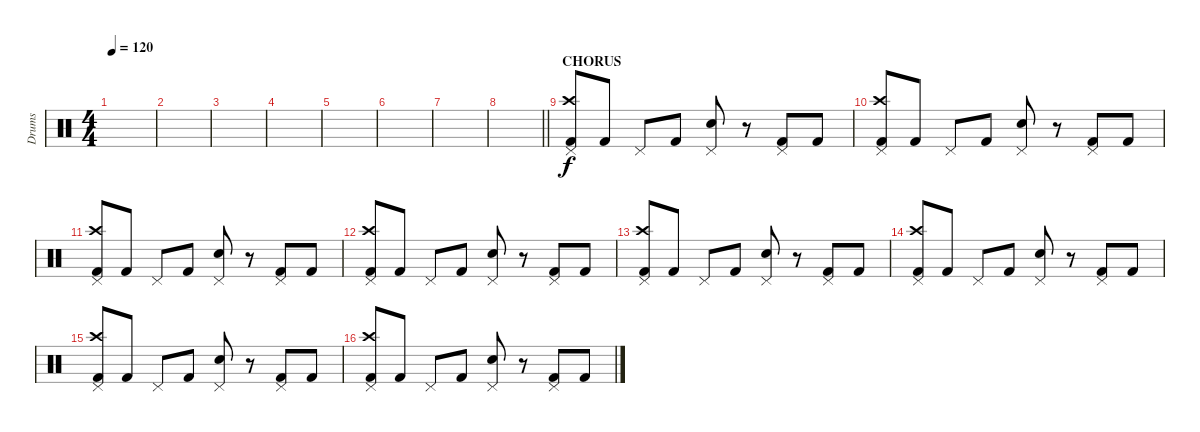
\track ("Drums" "Drums") {instrument percussion}
\staff {score}
\articulation defaults
\ts (4 4)
\tempo 120
\clef neutral
\ks c
|
|
|
|
|
|
|
\barLineRight lightlight
|
\section ("" "CHORUS")
("Pedal Hi-Hat (hit)" "Crash high (hit)" "Kick (hit) 2").8 "Kick (hit) 2".8 "Pedal Hi-Hat (hit)".8 "Kick (hit) 2".8 ("Pedal Hi-Hat (hit)" "Snare (hit) 2").8 r.8 ("Pedal Hi-Hat (hit)" "Kick (hit) 2").8 "Kick (hit) 2".8 |
("Pedal Hi-Hat (hit)" "Crash high (hit)" "Kick (hit) 2").8 "Kick (hit) 2".8 "Pedal Hi-Hat (hit)".8 "Kick (hit) 2".8 ("Pedal Hi-Hat (hit)" "Snare (hit) 2").8 r.8 ("Pedal Hi-Hat (hit)" "Kick (hit) 2").8 "Kick (hit) 2".8 |
("Pedal Hi-Hat (hit)" "Crash high (hit)" "Kick (hit) 2").8 "Kick (hit) 2".8 "Pedal Hi-Hat (hit)".8 "Kick (hit) 2".8 ("Pedal Hi-Hat (hit)" "Snare (hit) 2").8 r.8 ("Pedal Hi-Hat (hit)" "Kick (hit) 2").8 "Kick (hit) 2".8 |
("Pedal Hi-Hat (hit)" "Crash high (hit)" "Kick (hit) 2").8 "Kick (hit) 2".8 "Pedal Hi-Hat (hit)".8 "Kick (hit) 2".8 ("Pedal Hi-Hat (hit)" "Snare (hit) 2").8 r.8 ("Pedal Hi-Hat (hit)" "Kick (hit) 2").8 "Kick (hit) 2".8 |
("Pedal Hi-Hat (hit)" "Crash high (hit)" "Kick (hit) 2").8 "Kick (hit) 2".8 "Pedal Hi-Hat (hit)".8 "Kick (hit) 2".8 ("Pedal Hi-Hat (hit)" "Snare (hit) 2").8 r.8 ("Pedal Hi-Hat (hit)" "Kick (hit) 2").8 "Kick (hit) 2".8 |
("Pedal Hi-Hat (hit)" "Crash high (hit)" "Kick (hit) 2").8 "Kick (hit) 2".8 "Pedal Hi-Hat (hit)".8 "Kick (hit) 2".8 ("Pedal Hi-Hat (hit)" "Snare (hit) 2").8 r.8 ("Pedal Hi-Hat (hit)" "Kick (hit) 2").8 "Kick (hit) 2".8 |
("Pedal Hi-Hat (hit)" "Crash high (hit)" "Kick (hit) 2").8 "Kick (hit) 2".8 "Pedal Hi-Hat (hit)".8 "Kick (hit) 2".8 ("Pedal Hi-Hat (hit)" "Snare (hit) 2").8 r.8 ("Pedal Hi-Hat (hit)" "Kick (hit) 2").8 "Kick (hit) 2".8 |
("Pedal Hi-Hat (hit)" "Crash high (hit)" "Kick (hit) 2").8 "Kick (hit) 2".8 "Pedal Hi-Hat (hit)".8 "Kick (hit) 2".8 ("Pedal Hi-Hat (hit)" "Snare (hit) 2").8 r.8 ("Pedal Hi-Hat (hit)" "Kick (hit) 2").8 "Kick (hit) 2".8
